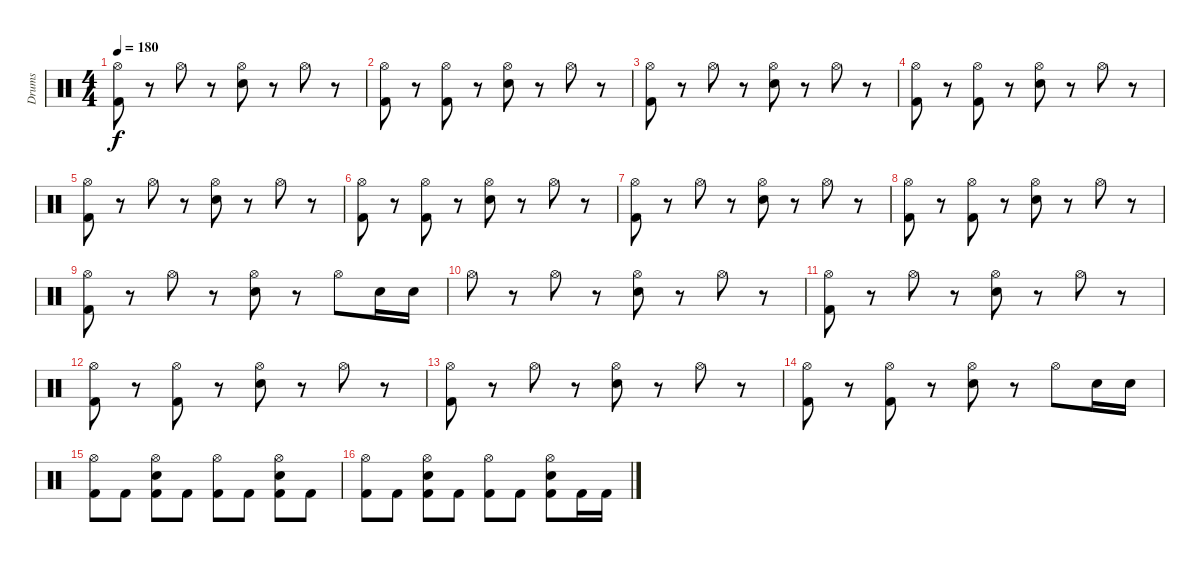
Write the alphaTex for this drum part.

\track ("Drums" "Drums") {instrument percussion}
\staff {score}
\articulation defaults
\ts (4 4)
\tempo 180
\clef neutral
\ks c
("Hi-Hat (open)" "Kick (hit) 2").8{dy f} r.8 "Hi-Hat (open)".8 r.8 ("Hi-Hat (open)" "Electric Snare (hit)").8 r.8 "Hi-Hat (open)".8 r.8 |
("Hi-Hat (open)" "Kick (hit) 2").8 r.8 ("Hi-Hat (open)" "Kick (hit) 2").8 r.8 ("Hi-Hat (open)" "Electric Snare (hit)").8 r.8 "Hi-Hat (open)".8 r.8 |
("Hi-Hat (open)" "Kick (hit) 2").8 r.8 "Hi-Hat (open)".8 r.8 ("Hi-Hat (open)" "Electric Snare (hit)").8 r.8 "Hi-Hat (open)".8 r.8 |
("Hi-Hat (open)" "Kick (hit) 2").8 r.8 ("Hi-Hat (open)" "Kick (hit) 2").8 r.8 ("Hi-Hat (open)" "Electric Snare (hit)").8 r.8 "Hi-Hat (open)".8 r.8 |
("Hi-Hat (open)" "Kick (hit) 2").8 r.8 "Hi-Hat (open)".8 r.8 ("Hi-Hat (open)" "Electric Snare (hit)").8 r.8 "Hi-Hat (open)".8 r.8 |
("Hi-Hat (open)" "Kick (hit) 2").8 r.8 ("Hi-Hat (open)" "Kick (hit) 2").8 r.8 ("Hi-Hat (open)" "Electric Snare (hit)").8 r.8 "Hi-Hat (open)".8 r.8 |
("Hi-Hat (open)" "Kick (hit) 2").8 r.8 "Hi-Hat (open)".8 r.8 ("Hi-Hat (open)" "Electric Snare (hit)").8 r.8 "Hi-Hat (open)".8 r.8 |
("Hi-Hat (open)" "Kick (hit) 2").8 r.8 ("Hi-Hat (open)" "Kick (hit) 2").8 r.8 ("Hi-Hat (open)" "Electric Snare (hit)").8 r.8 "Hi-Hat (open)".8 r.8 |
("Hi-Hat (open)" "Kick (hit) 2").8 r.8 "Hi-Hat (open)".8 r.8 ("Hi-Hat (open)" "Electric Snare (hit)").8 r.8 "Hi-Hat (open)".8 "Electric Snare (hit)".16 "Electric Snare (hit)".16 |
"Hi-Hat (open)".8 r.8 "Hi-Hat (open)".8 r.8 ("Hi-Hat (open)" "Electric Snare (hit)").8 r.8 "Hi-Hat (open)".8 r.8 |
("Hi-Hat (open)" "Kick (hit) 2").8 r.8 "Hi-Hat (open)".8 r.8 ("Hi-Hat (open)" "Electric Snare (hit)").8 r.8 "Hi-Hat (open)".8 r.8 |
("Hi-Hat (open)" "Kick (hit) 2").8 r.8 ("Hi-Hat (open)" "Kick (hit) 2").8 r.8 ("Hi-Hat (open)" "Electric Snare (hit)").8 r.8 "Hi-Hat (open)".8 r.8 |
("Hi-Hat (open)" "Kick (hit) 2").8 r.8 "Hi-Hat (open)".8 r.8 ("Hi-Hat (open)" "Electric Snare (hit)").8 r.8 "Hi-Hat (open)".8 r.8 |
("Hi-Hat (open)" "Kick (hit) 2").8 r.8 ("Hi-Hat (open)" "Kick (hit) 2").8 r.8 ("Hi-Hat (open)" "Electric Snare (hit)").8 r.8 "Hi-Hat (open)".8 "Electric Snare (hit)".16 "Electric Snare (hit)".16 |
("Hi-Hat (open)" "Kick (hit) 2").8 "Kick (hit) 2".8 ("Hi-Hat (open)" "Electric Snare (hit)" "Kick (hit) 2").8 "Kick (hit) 2".8 ("Hi-Hat (open)" "Kick (hit) 2").8 "Kick (hit) 2".8 ("Hi-Hat (open)" "Electric Snare (hit)" "Kick (hit) 2").8 "Kick (hit) 2".8 |
("Hi-Hat (open)" "Kick (hit) 2").8 "Kick (hit) 2".8 ("Hi-Hat (open)" "Electric Snare (hit)" "Kick (hit) 2").8 "Kick (hit) 2".8 ("Hi-Hat (open)" "Kick (hit) 2").8 "Kick (hit) 2".8 ("Hi-Hat (open)" "Electric Snare (hit)" "Kick (hit) 2").8 "Kick (hit) 2".16 "Kick (hit) 2".16
